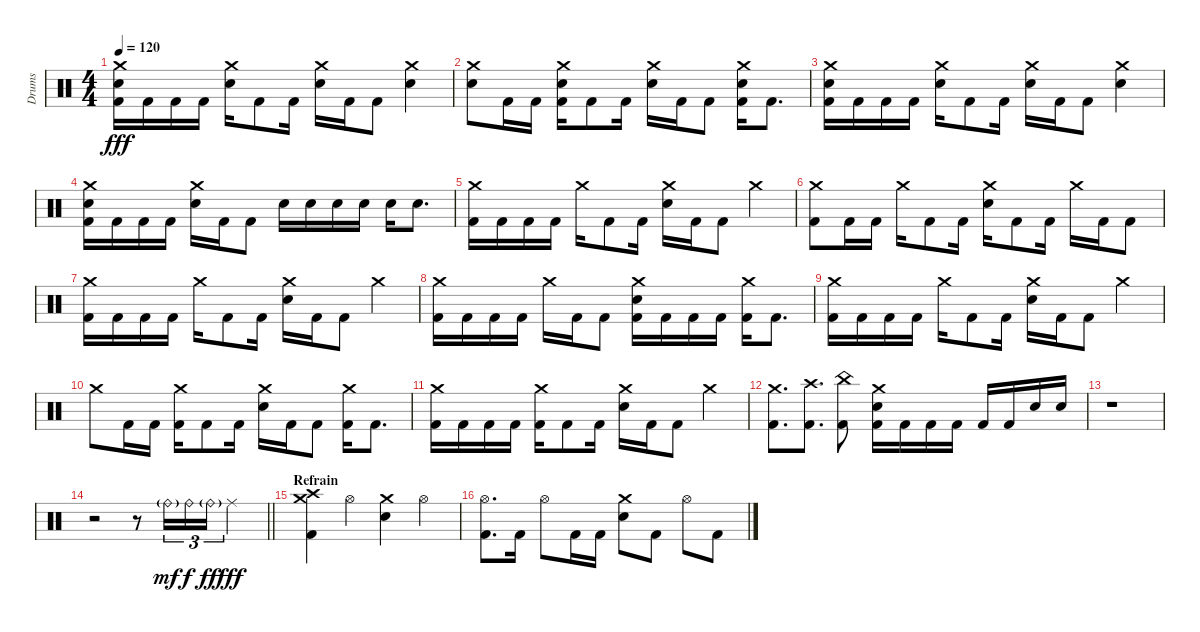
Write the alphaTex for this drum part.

\track ("Drums" "Drums") {instrument percussion}
\staff {score}
\articulation defaults
\ts (4 4)
\tempo 120
\clef neutral
\ks c
("Crash medium (hit)" "Electric Snare (hit)" "Kick (hit) 2").16{dy fff} "Kick (hit) 2".16 "Kick (hit) 2".16 "Kick (hit) 2".16 ("Crash medium (hit)" "Electric Snare (hit)").16 "Kick (hit) 2".8 "Kick (hit) 2".16 ("Crash medium (hit)" "Electric Snare (hit)").16 "Kick (hit) 2".16 "Kick (hit) 2".8 ("Crash medium (hit)" "Electric Snare (hit)").4 |
("Crash medium (hit)" "Electric Snare (hit)").8 "Kick (hit) 2".16 "Kick (hit) 2".16 ("Crash medium (hit)" "Electric Snare (hit)" "Kick (hit) 2").16 "Kick (hit) 2".8 "Kick (hit) 2".16 ("Crash medium (hit)" "Electric Snare (hit)").16 "Kick (hit) 2".16 "Kick (hit) 2".8 ("Crash medium (hit)" "Electric Snare (hit)" "Kick (hit) 2").16 "Kick (hit) 2".8{d} |
("Crash medium (hit)" "Electric Snare (hit)" "Kick (hit) 2").16 "Kick (hit) 2".16 "Kick (hit) 2".16 "Kick (hit) 2".16 ("Crash medium (hit)" "Electric Snare (hit)").16 "Kick (hit) 2".8 "Kick (hit) 2".16 ("Crash medium (hit)" "Electric Snare (hit)").16 "Kick (hit) 2".16 "Kick (hit) 2".8 ("Crash medium (hit)" "Electric Snare (hit)").4 |
("Crash medium (hit)" "Electric Snare (hit)" "Kick (hit) 2").16 "Kick (hit) 2".16 "Kick (hit) 2".16 "Kick (hit) 2".16 ("Crash medium (hit)" "Electric Snare (hit)").16 "Kick (hit) 2".16 "Kick (hit) 2".8 "Electric Snare (hit)".16 "Electric Snare (hit)".16 "Electric Snare (hit)".16 "Electric Snare (hit)".16 "Electric Snare (hit)".16 "Electric Snare (hit)".8{d} |
("Crash medium (hit)" "Kick (hit) 2").16 "Kick (hit) 2".16 "Kick (hit) 2".16 "Kick (hit) 2".16 "Crash medium (hit)".16 "Kick (hit) 2".8 "Kick (hit) 2".16 ("Crash medium (hit)" "Electric Snare (hit)").16 "Kick (hit) 2".16 "Kick (hit) 2".8 "Crash medium (hit)".4 |
("Crash medium (hit)" "Kick (hit) 2").8 "Kick (hit) 2".16 "Kick (hit) 2".16 "Crash medium (hit)".16 "Kick (hit) 2".8 "Kick (hit) 2".16 ("Crash medium (hit)" "Electric Snare (hit)").16 "Kick (hit) 2".8 "Kick (hit) 2".16 "Crash medium (hit)".16 "Kick (hit) 2".16 "Kick (hit) 2".8 |
("Crash medium (hit)" "Kick (hit) 2").16 "Kick (hit) 2".16 "Kick (hit) 2".16 "Kick (hit) 2".16 "Crash medium (hit)".16 "Kick (hit) 2".8 "Kick (hit) 2".16 ("Crash medium (hit)" "Electric Snare (hit)").16 "Kick (hit) 2".16 "Kick (hit) 2".8 "Crash medium (hit)".4 |
("Crash medium (hit)" "Kick (hit) 2").16 "Kick (hit) 2".16 "Kick (hit) 2".16 "Kick (hit) 2".16 "Crash medium (hit)".16 "Kick (hit) 2".16 "Kick (hit) 2".8 ("Crash medium (hit)" "Electric Snare (hit)" "Kick (hit) 2").16 "Kick (hit) 2".16 "Kick (hit) 2".16 "Kick (hit) 2".16 ("Crash medium (hit)" "Kick (hit) 2").16 "Kick (hit) 2".8{d} |
("Crash medium (hit)" "Kick (hit) 2").16 "Kick (hit) 2".16 "Kick (hit) 2".16 "Kick (hit) 2".16 "Crash medium (hit)".16 "Kick (hit) 2".8 "Kick (hit) 2".16 ("Crash medium (hit)" "Electric Snare (hit)").16 "Kick (hit) 2".16 "Kick (hit) 2".8 "Crash medium (hit)".4 |
"Crash medium (hit)".8 "Kick (hit) 2".16 "Kick (hit) 2".16 ("Crash medium (hit)" "Kick (hit) 2").16 "Kick (hit) 2".8 "Kick (hit) 2".16 ("Crash medium (hit)" "Electric Snare (hit)").16 "Kick (hit) 2".16 "Kick (hit) 2".8 ("Crash medium (hit)" "Kick (hit) 2").16 "Kick (hit) 2".8{d} |
("Crash medium (hit)" "Kick (hit) 2").16 "Kick (hit) 2".16 "Kick (hit) 2".16 "Kick (hit) 2".16 ("Crash medium (hit)" "Kick (hit) 2").16 "Kick (hit) 2".8 "Kick (hit) 2".16 ("Crash medium (hit)" "Electric Snare (hit)").16 "Kick (hit) 2".16 "Kick (hit) 2".8 "Crash medium (hit)".4 |
("Crash medium (hit)" "Kick (hit) 2").8{d} ("Crash high (hit)" "Kick (hit) 2").8{d} ("China (hit)" "Kick (hit) 2").8 ("Crash medium (hit)" "Electric Snare (hit)" "Kick (hit) 2").16 "Kick (hit) 2".16 "Kick (hit) 2".16 "Kick (hit) 2".16 "Kick (hit) 2".16 "Kick (hit) 2".16 "Electric Snare (hit)".16 "Electric Snare (hit)".16 |
r.1 |
\barLineRight lightlight
r.2 r.8 "Ride (bell)"{g}.16{tu (3 2) dy mf} "Ride (bell)".16{tu (3 2) dy f} "Ride (bell)"{g}.16{tu (3 2) dy ff} "Ride (middle)".4{dy fff} |
\section ("" "Refrain")
("Crash medium (hit)" "Crash high (hit)" "Kick (hit) 2").4 "Hi-Hat (open)".4 ("Crash medium (hit)" "Electric Snare (hit)").4 "Hi-Hat (open)".4 |
("Hi-Hat (open)" "Kick (hit) 2").8{d} "Kick (hit) 2".16 "Hi-Hat (open)".8 "Kick (hit) 2".16 "Kick (hit) 2".16 ("Crash medium (hit)" "Electric Snare (hit)").8 "Kick (hit) 2".8 "Hi-Hat (open)".8 "Kick (hit) 2".8
